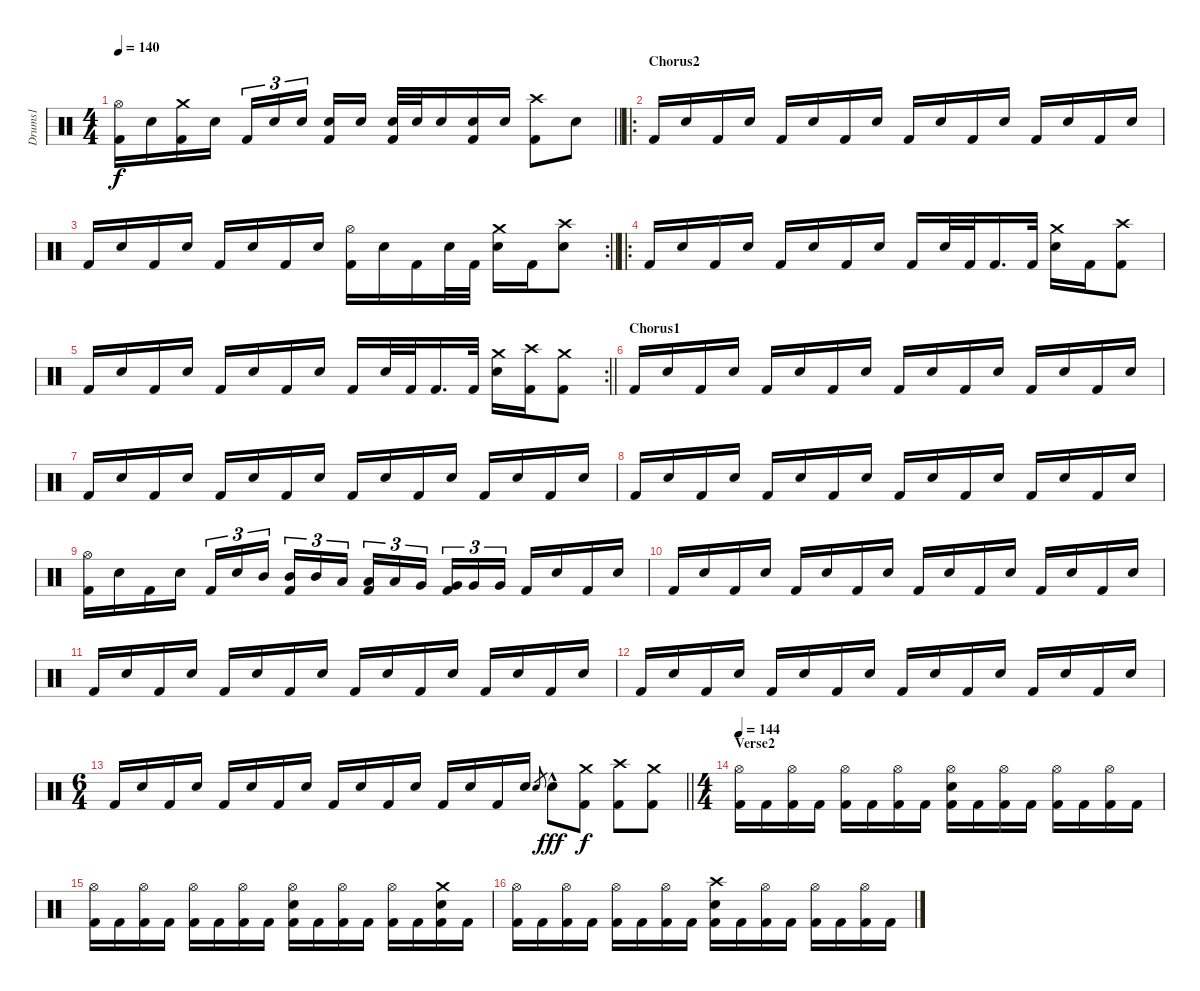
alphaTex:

\track ("Drums1" "Drums1") {instrument percussion}
\staff {score}
\articulation defaults
\ts (4 4)
\tempo 140
\clef neutral
\barLineRight lightlight
\ks c
("Hi-Hat (open)" "Kick (hit) 2").16{dy f} "Electric Snare (hit)".16 ("Crash medium (hit)" "Kick (hit) 2").16 "Electric Snare (hit)".16 "Kick (hit) 2".16{tu (3 2)} "Electric Snare (hit)".16{tu (3 2)} "Electric Snare (hit)".16{tu (3 2) beam splitsecondary} ("Kick (hit) 2" "Electric Snare (hit)").16 "Electric Snare (hit)".16 ("Kick (hit) 2" "Electric Snare (hit)").32 "Electric Snare (hit)".32 "Electric Snare (hit)".16 ("Kick (hit) 2" "Electric Snare (hit)").16 "Electric Snare (hit)".16 ("Crash high (hit)" "Kick (hit) 2").8 "Electric Snare (hit)".8 |
\ro
\section ("" "Chorus2")
"Kick (hit) 2".16 "Electric Snare (hit)".16 "Kick (hit) 2".16 "Electric Snare (hit)".16 "Kick (hit) 2".16 "Electric Snare (hit)".16 "Kick (hit) 2".16 "Electric Snare (hit)".16 "Kick (hit) 2".16 "Electric Snare (hit)".16 "Kick (hit) 2".16 "Electric Snare (hit)".16 "Kick (hit) 2".16 "Electric Snare (hit)".16 "Kick (hit) 2".16 "Electric Snare (hit)".16 |
\rc 2
\barLineRight lightlight "Kick (hit) 2".16 "Electric Snare (hit)".16 "Kick (hit) 2".16 "Electric Snare (hit)".16 "Kick (hit) 2".16 "Electric Snare (hit)".16 "Kick (hit) 2".16 "Electric Snare (hit)".16
("Hi-Hat (open)" "Kick (hit) 2").16 "Electric Snare (hit)".16 "Kick (hit) 2".16 "Electric Snare (hit)".32 "Kick (hit) 2".32 ("Crash medium (hit)" "Electric Snare (hit)").16 "Kick (hit) 2".16 ("Crash high (hit)" "Electric Snare (hit)").8 |
\ro "Kick (hit) 2".16 "Electric Snare (hit)".16 "Kick (hit) 2".16 "Electric Snare (hit)".16 "Kick (hit) 2".16 "Electric Snare (hit)".16 "Kick (hit) 2".16 "Electric Snare (hit)".16 "Kick (hit) 2".16 "Electric Snare (hit)".32 "Kick (hit) 2".32 "Kick (hit) 2".16{d} "Kick (hit) 2".32
("Crash medium (hit)" "Electric Snare (hit)").16 "Kick (hit) 2".16 ("Crash high (hit)" "Kick (hit) 2").8 |
\rc 2
\barLineRight lightlight "Kick (hit) 2".16 "Electric Snare (hit)".16 "Kick (hit) 2".16 "Electric Snare (hit)".16 "Kick (hit) 2".16 "Electric Snare (hit)".16 "Kick (hit) 2".16 "Electric Snare (hit)".16 "Kick (hit) 2".16 "Electric Snare (hit)".32 "Kick (hit) 2".32 "Kick (hit) 2".16{d} "Kick (hit) 2".32
("Crash medium (hit)" "Electric Snare (hit)").16 ("Crash high (hit)" "Kick (hit) 2").16 ("Crash medium (hit)" "Kick (hit) 2").8 |
\section ("" "Chorus1")
"Kick (hit) 2".16 "Electric Snare (hit)".16 "Kick (hit) 2".16 "Electric Snare (hit)".16 "Kick (hit) 2".16 "Electric Snare (hit)".16 "Kick (hit) 2".16 "Electric Snare (hit)".16 "Kick (hit) 2".16 "Electric Snare (hit)".16 "Kick (hit) 2".16 "Electric Snare (hit)".16 "Kick (hit) 2".16 "Electric Snare (hit)".16 "Kick (hit) 2".16 "Electric Snare (hit)".16 |
"Kick (hit) 2".16 "Electric Snare (hit)".16 "Kick (hit) 2".16 "Electric Snare (hit)".16 "Kick (hit) 2".16 "Electric Snare (hit)".16 "Kick (hit) 2".16 "Electric Snare (hit)".16 "Kick (hit) 2".16 "Electric Snare (hit)".16 "Kick (hit) 2".16 "Electric Snare (hit)".16 "Kick (hit) 2".16 "Electric Snare (hit)".16 "Kick (hit) 2".16 "Electric Snare (hit)".16 |
"Kick (hit) 2".16 "Electric Snare (hit)".16 "Kick (hit) 2".16 "Electric Snare (hit)".16 "Kick (hit) 2".16 "Electric Snare (hit)".16 "Kick (hit) 2".16 "Electric Snare (hit)".16 "Kick (hit) 2".16 "Electric Snare (hit)".16 "Kick (hit) 2".16 "Electric Snare (hit)".16 "Kick (hit) 2".16 "Electric Snare (hit)".16 "Kick (hit) 2".16 "Electric Snare (hit)".16 |
("Hi-Hat (open)" "Kick (hit) 2").16 "Electric Snare (hit)".16 "Kick (hit) 2".16 "Electric Snare (hit)".16 "Kick (hit) 2".16{tu (3 2)} "Electric Snare (hit)".16{tu (3 2)} "Mid Tom (hit)".16{tu (3 2) beam splitsecondary} ("Kick (hit) 2" "Mid Tom (hit)").16{tu (3 2)} "Mid Tom (hit)".16{tu (3 2)} "Low Tom (hit)".16{tu (3 2)} ("Kick (hit) 2" "Low Tom (hit)").16{tu (3 2)} "Low Tom (hit)".16{tu (3 2)} "Very Low Tom (hit)".16{tu (3 2) beam splitsecondary} ("Kick (hit) 2" "Very Low Tom (hit)").16{tu (3 2)} "Very Low Tom (hit)".16{tu (3 2)} "Very Low Tom (hit)".16{tu (3 2)} "Kick (hit) 2".16 "Electric Snare (hit)".16 "Kick (hit) 2".16 "Electric Snare (hit)".16 |
"Kick (hit) 2".16 "Electric Snare (hit)".16 "Kick (hit) 2".16 "Electric Snare (hit)".16 "Kick (hit) 2".16 "Electric Snare (hit)".16 "Kick (hit) 2".16 "Electric Snare (hit)".16 "Kick (hit) 2".16 "Electric Snare (hit)".16 "Kick (hit) 2".16 "Electric Snare (hit)".16 "Kick (hit) 2".16 "Electric Snare (hit)".16 "Kick (hit) 2".16 "Electric Snare (hit)".16 |
"Kick (hit) 2".16 "Electric Snare (hit)".16 "Kick (hit) 2".16 "Electric Snare (hit)".16 "Kick (hit) 2".16 "Electric Snare (hit)".16 "Kick (hit) 2".16 "Electric Snare (hit)".16 "Kick (hit) 2".16 "Electric Snare (hit)".16 "Kick (hit) 2".16 "Electric Snare (hit)".16 "Kick (hit) 2".16 "Electric Snare (hit)".16 "Kick (hit) 2".16 "Electric Snare (hit)".16 |
"Kick (hit) 2".16 "Electric Snare (hit)".16 "Kick (hit) 2".16 "Electric Snare (hit)".16 "Kick (hit) 2".16 "Electric Snare (hit)".16 "Kick (hit) 2".16 "Electric Snare (hit)".16 "Kick (hit) 2".16 "Electric Snare (hit)".16 "Kick (hit) 2".16 "Electric Snare (hit)".16 "Kick (hit) 2".16 "Electric Snare (hit)".16 "Kick (hit) 2".16 "Electric Snare (hit)".16 |
\ts (6 4)
\barLineRight lightlight "Kick (hit) 2".16 "Electric Snare (hit)".16 "Kick (hit) 2".16 "Electric Snare (hit)".16 "Kick (hit) 2".16 "Electric Snare (hit)".16 "Kick (hit) 2".16 "Electric Snare (hit)".16 "Kick (hit) 2".16 "Electric Snare (hit)".16 "Kick (hit) 2".16 "Electric Snare (hit)".16 "Kick (hit) 2".16 "Electric Snare (hit)".16 "Kick (hit) 2".16 "Electric Snare (hit)".16 "Electric Snare (hit)".8{gr} "Electric Snare (hit)"{hac}.8{dy fff}
("Crash medium (hit)" "Kick (hit) 2").8{dy f} ("Crash high (hit)" "Kick (hit) 2").8 ("Crash medium (hit)" "Kick (hit) 2").8 |
\ts (4 4)
\section ("" "Verse2")
\tempo 144
("Hi-Hat (open)" "Kick (hit) 2").16 "Kick (hit) 2".16 ("Hi-Hat (open)" "Kick (hit) 2").16 "Kick (hit) 2".16 ("Hi-Hat (open)" "Kick (hit) 2").16 "Kick (hit) 2".16 ("Hi-Hat (open)" "Kick (hit) 2").16 "Kick (hit) 2".16 ("Hi-Hat (open)" "Electric Snare (hit)" "Kick (hit) 2").16 "Kick (hit) 2".16 ("Hi-Hat (open)" "Kick (hit) 2").16 "Kick (hit) 2".16 ("Hi-Hat (open)" "Kick (hit) 2").16 "Kick (hit) 2".16 ("Hi-Hat (open)" "Kick (hit) 2").16 "Kick (hit) 2".16 |
("Hi-Hat (open)" "Kick (hit) 2").16 "Kick (hit) 2".16 ("Hi-Hat (open)" "Kick (hit) 2").16 "Kick (hit) 2".16 ("Hi-Hat (open)" "Kick (hit) 2").16 "Kick (hit) 2".16 ("Hi-Hat (open)" "Kick (hit) 2").16 "Kick (hit) 2".16 ("Hi-Hat (open)" "Electric Snare (hit)" "Kick (hit) 2").16 "Kick (hit) 2".16 ("Hi-Hat (open)" "Kick (hit) 2").16 "Kick (hit) 2".16 ("Hi-Hat (open)" "Kick (hit) 2").16 "Kick (hit) 2".16 ("Crash medium (hit)" "Electric Snare (hit)" "Kick (hit) 2").16 "Kick (hit) 2".16 |
("Hi-Hat (open)" "Kick (hit) 2").16 "Kick (hit) 2".16 ("Hi-Hat (open)" "Kick (hit) 2").16 "Kick (hit) 2".16 ("Hi-Hat (open)" "Kick (hit) 2").16 "Kick (hit) 2".16 ("Hi-Hat (open)" "Kick (hit) 2").16 "Kick (hit) 2".16 ("Crash high (hit)" "Electric Snare (hit)" "Kick (hit) 2").16 "Kick (hit) 2".16 ("Hi-Hat (open)" "Kick (hit) 2").16 "Kick (hit) 2".16 ("Hi-Hat (open)" "Kick (hit) 2").16 "Kick (hit) 2".16 ("Hi-Hat (open)" "Kick (hit) 2").16 "Kick (hit) 2".16
